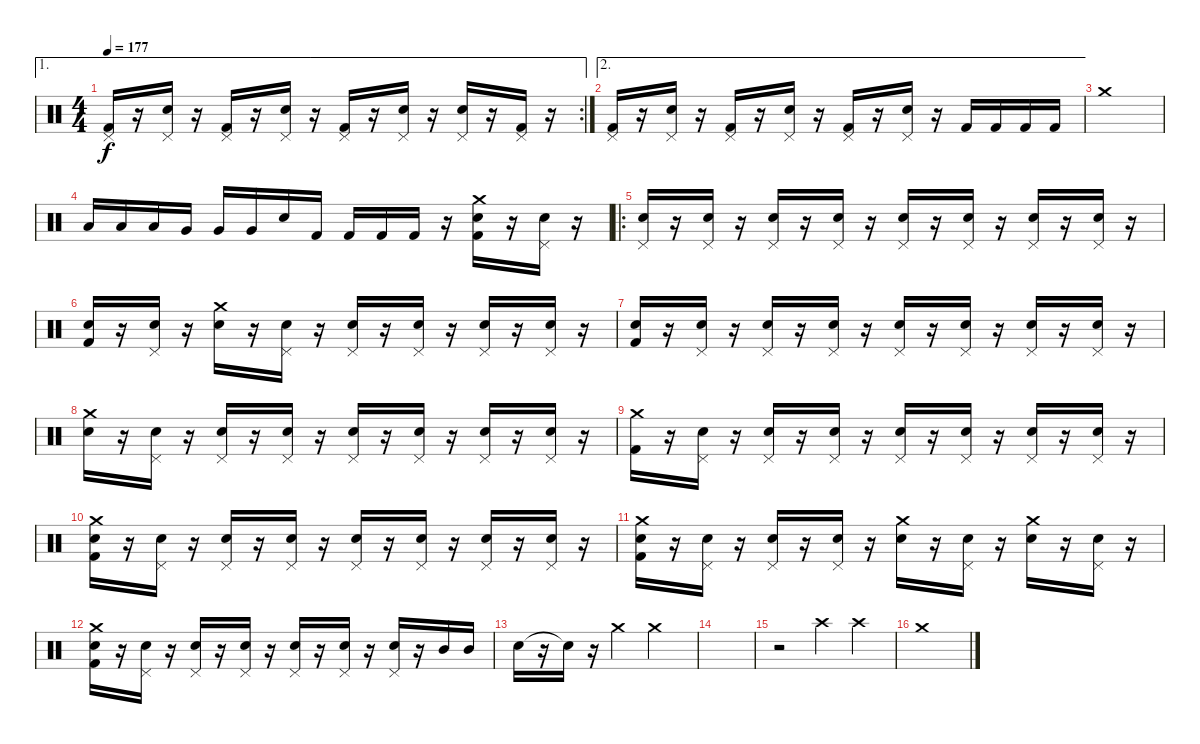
\track "" {instrument percussion}
\staff {score}
\articulation defaults
\ae 1
\rc 2
\ts (4 4)
\tempo 177
\clef neutral
\ks c
("Kick (hit) 2" "Pedal Hi-Hat (hit)").16{dy f} r.16 ("Electric Snare (hit)" "Pedal Hi-Hat (hit)").16 r.16 ("Kick (hit) 2" "Pedal Hi-Hat (hit)").16 r.16 ("Electric Snare (hit)" "Pedal Hi-Hat (hit)").16 r.16 ("Kick (hit) 2" "Pedal Hi-Hat (hit)").16 r.16 ("Electric Snare (hit)" "Pedal Hi-Hat (hit)").16 r.16 ("Electric Snare (hit)" "Pedal Hi-Hat (hit)").16 r.16 ("Kick (hit) 2" "Pedal Hi-Hat (hit)").16 r.16 |
\ae 2
("Kick (hit) 2" "Pedal Hi-Hat (hit)").16 r.16 ("Electric Snare (hit)" "Pedal Hi-Hat (hit)").16 r.16 ("Kick (hit) 2" "Pedal Hi-Hat (hit)").16 r.16 ("Electric Snare (hit)" "Pedal Hi-Hat (hit)").16 r.16 ("Kick (hit) 2" "Pedal Hi-Hat (hit)").16 r.16 ("Electric Snare (hit)" "Pedal Hi-Hat (hit)").16 r.16 "Kick (hit) 2".16 "Kick (hit) 2".16 "Kick (hit) 2".16 "Kick (hit) 2".16 |
"Crash medium (hit)".1 |
"Low Floor Tom (hit)".16 "Low Floor Tom (hit)".16 "Low Floor Tom (hit)".16 "Very Low Tom (hit)".16 "Very Low Tom (hit)".16 "Very Low Tom (hit)".16 "Electric Snare (hit)".16 "Kick (hit) 2".16 "Kick (hit) 2".16 "Kick (hit) 2".16 "Kick (hit) 2".16 r.16 ("Crash medium (hit)" "Kick (hit) 2" "Electric Snare (hit)").16 r.16 ("Electric Snare (hit)" "Pedal Hi-Hat (hit)").16 r.16 |
\ro
("Pedal Hi-Hat (hit)" "Electric Snare (hit)").16 r.16 ("Electric Snare (hit)" "Pedal Hi-Hat (hit)").16 r.16 ("Electric Snare (hit)" "Pedal Hi-Hat (hit)").16 r.16 ("Electric Snare (hit)" "Pedal Hi-Hat (hit)").16 r.16 ("Electric Snare (hit)" "Pedal Hi-Hat (hit)").16 r.16 ("Electric Snare (hit)" "Pedal Hi-Hat (hit)").16 r.16 ("Electric Snare (hit)" "Pedal Hi-Hat (hit)").16 r.16 ("Electric Snare (hit)" "Pedal Hi-Hat (hit)").16 r.16 |
("Kick (hit) 2" "Electric Snare (hit)").16 r.16 ("Electric Snare (hit)" "Pedal Hi-Hat (hit)").16 r.16 ("Electric Snare (hit)" "Crash medium (hit)").16 r.16 ("Electric Snare (hit)" "Pedal Hi-Hat (hit)").16 r.16 ("Electric Snare (hit)" "Pedal Hi-Hat (hit)").16 r.16 ("Electric Snare (hit)" "Pedal Hi-Hat (hit)").16 r.16 ("Electric Snare (hit)" "Pedal Hi-Hat (hit)").16 r.16 ("Electric Snare (hit)" "Pedal Hi-Hat (hit)").16 r.16 |
("Kick (hit) 2" "Electric Snare (hit)").16 r.16 ("Electric Snare (hit)" "Pedal Hi-Hat (hit)").16 r.16 ("Electric Snare (hit)" "Pedal Hi-Hat (hit)").16 r.16 ("Electric Snare (hit)" "Pedal Hi-Hat (hit)").16 r.16 ("Electric Snare (hit)" "Pedal Hi-Hat (hit)").16 r.16 ("Electric Snare (hit)" "Pedal Hi-Hat (hit)").16 r.16 ("Electric Snare (hit)" "Pedal Hi-Hat (hit)").16 r.16 ("Electric Snare (hit)" "Pedal Hi-Hat (hit)").16 r.16 |
("Crash medium (hit)" "Electric Snare (hit)").16 r.16 ("Electric Snare (hit)" "Pedal Hi-Hat (hit)").16 r.16 ("Electric Snare (hit)" "Pedal Hi-Hat (hit)").16 r.16 ("Electric Snare (hit)" "Pedal Hi-Hat (hit)").16 r.16 ("Electric Snare (hit)" "Pedal Hi-Hat (hit)").16 r.16 ("Electric Snare (hit)" "Pedal Hi-Hat (hit)").16 r.16 ("Electric Snare (hit)" "Pedal Hi-Hat (hit)").16 r.16 ("Electric Snare (hit)" "Pedal Hi-Hat (hit)").16 r.16 |
("Crash medium (hit)" "Kick (hit) 2").16 r.16 ("Electric Snare (hit)" "Pedal Hi-Hat (hit)").16 r.16 ("Electric Snare (hit)" "Pedal Hi-Hat (hit)").16 r.16 ("Electric Snare (hit)" "Pedal Hi-Hat (hit)").16 r.16 ("Electric Snare (hit)" "Pedal Hi-Hat (hit)").16 r.16 ("Electric Snare (hit)" "Pedal Hi-Hat (hit)").16 r.16 ("Electric Snare (hit)" "Pedal Hi-Hat (hit)").16 r.16 ("Electric Snare (hit)" "Pedal Hi-Hat (hit)").16 r.16 |
("Crash medium (hit)" "Electric Snare (hit)" "Kick (hit) 2").16 r.16 ("Electric Snare (hit)" "Pedal Hi-Hat (hit)").16 r.16 ("Electric Snare (hit)" "Pedal Hi-Hat (hit)").16 r.16 ("Electric Snare (hit)" "Pedal Hi-Hat (hit)").16 r.16 ("Electric Snare (hit)" "Pedal Hi-Hat (hit)").16 r.16 ("Electric Snare (hit)" "Pedal Hi-Hat (hit)").16 r.16 ("Electric Snare (hit)" "Pedal Hi-Hat (hit)").16 r.16 ("Electric Snare (hit)" "Pedal Hi-Hat (hit)").16 r.16 |
("Kick (hit) 2" "Electric Snare (hit)" "Crash medium (hit)").16 r.16 ("Electric Snare (hit)" "Pedal Hi-Hat (hit)").16 r.16 ("Electric Snare (hit)" "Pedal Hi-Hat (hit)").16 r.16 ("Electric Snare (hit)" "Pedal Hi-Hat (hit)").16 r.16 ("Electric Snare (hit)" "Crash medium (hit)").16 r.16 ("Electric Snare (hit)" "Pedal Hi-Hat (hit)").16 r.16 ("Electric Snare (hit)" "Crash medium (hit)").16 r.16 ("Electric Snare (hit)" "Pedal Hi-Hat (hit)").16 r.16 |
("Kick (hit) 2" "Electric Snare (hit)" "Crash medium (hit)").16 r.16 ("Electric Snare (hit)" "Pedal Hi-Hat (hit)").16 r.16 ("Electric Snare (hit)" "Pedal Hi-Hat (hit)").16 r.16 ("Electric Snare (hit)" "Pedal Hi-Hat (hit)").16 r.16 ("Electric Snare (hit)" "Pedal Hi-Hat (hit)").16 r.16 ("Electric Snare (hit)" "Pedal Hi-Hat (hit)").16 r.16 ("Electric Snare (hit)" "Pedal Hi-Hat (hit)").16 r.16 "Mid Tom (hit)".16 "Mid Tom (hit)".16 |
"Electric Snare (hit)".16 r.16 "Electric Snare (hit)"{t}.16 r.16 "Crash medium (hit)".4 "Crash medium (hit)".2 |
|
r.2 "Crash high (hit)".4 "Crash high (hit)".4 |
"Crash medium (hit)".1
